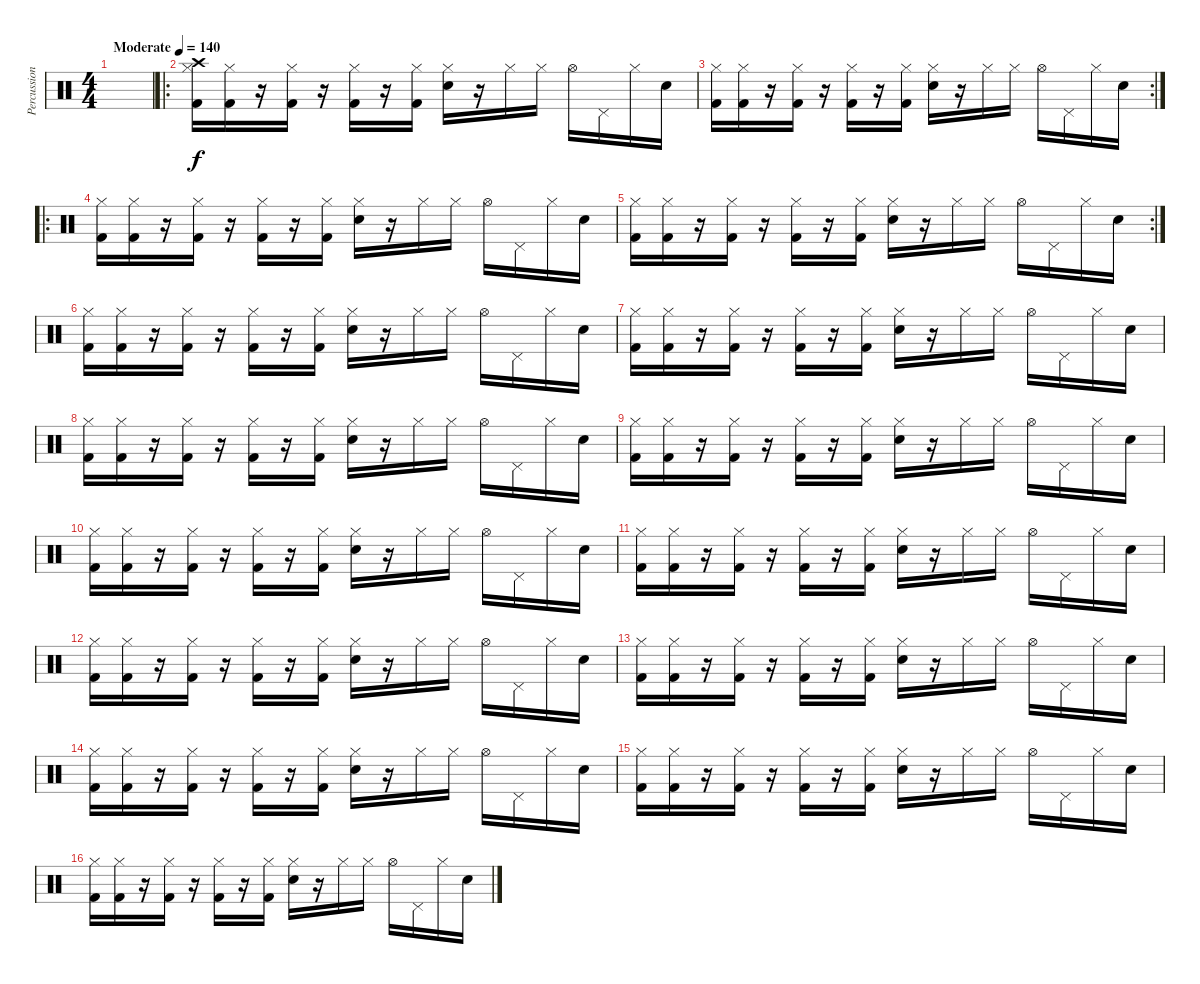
\track ("Percussion" "Percussion") {instrument percussion}
\staff {score}
\articulation defaults
\ts (4 4)
\tempo (140 "Moderate")
\clef neutral
\ks c
|
\ro
("Crash high (hit)" "Hi-Hat (closed)" "Kick (hit) 2").16 ("Hi-Hat (closed)" "Kick (hit) 2").16 r.16 ("Hi-Hat (closed)" "Kick (hit) 2").16 r.16 ("Hi-Hat (closed)" "Kick (hit) 2").16 r.16 ("Hi-Hat (closed)" "Kick (hit) 2").16 ("Hi-Hat (closed)" "Electric Snare (hit)").16 r.16 "Hi-Hat (closed)".16 "Hi-Hat (closed)".16 "Hi-Hat (open)".16 "Pedal Hi-Hat (hit)".16 "Hi-Hat (closed)".16 "Electric Snare (hit)".16 |
\rc 2
("Hi-Hat (closed)" "Kick (hit) 2").16 ("Hi-Hat (closed)" "Kick (hit) 2").16 r.16 ("Hi-Hat (closed)" "Kick (hit) 2").16 r.16 ("Hi-Hat (closed)" "Kick (hit) 2").16 r.16 ("Hi-Hat (closed)" "Kick (hit) 2").16 ("Hi-Hat (closed)" "Electric Snare (hit)").16 r.16 "Hi-Hat (closed)".16 "Hi-Hat (closed)".16 "Hi-Hat (open)".16 "Pedal Hi-Hat (hit)".16 "Hi-Hat (closed)".16 "Electric Snare (hit)".16 |
\ro
("Hi-Hat (closed)" "Kick (hit) 2").16 ("Hi-Hat (closed)" "Kick (hit) 2").16 r.16 ("Hi-Hat (closed)" "Kick (hit) 2").16 r.16 ("Hi-Hat (closed)" "Kick (hit) 2").16 r.16 ("Hi-Hat (closed)" "Kick (hit) 2").16 ("Hi-Hat (closed)" "Electric Snare (hit)").16 r.16 "Hi-Hat (closed)".16 "Hi-Hat (closed)".16 "Hi-Hat (open)".16 "Pedal Hi-Hat (hit)".16 "Hi-Hat (closed)".16 "Electric Snare (hit)".16 |
\rc 2
("Hi-Hat (closed)" "Kick (hit) 2").16 ("Hi-Hat (closed)" "Kick (hit) 2").16 r.16 ("Hi-Hat (closed)" "Kick (hit) 2").16 r.16 ("Hi-Hat (closed)" "Kick (hit) 2").16 r.16 ("Hi-Hat (closed)" "Kick (hit) 2").16 ("Hi-Hat (closed)" "Electric Snare (hit)").16 r.16 "Hi-Hat (closed)".16 "Hi-Hat (closed)".16 "Hi-Hat (open)".16 "Pedal Hi-Hat (hit)".16 "Hi-Hat (closed)".16 "Electric Snare (hit)".16 |
("Hi-Hat (closed)" "Kick (hit) 2").16 ("Hi-Hat (closed)" "Kick (hit) 2").16 r.16 ("Hi-Hat (closed)" "Kick (hit) 2").16 r.16 ("Hi-Hat (closed)" "Kick (hit) 2").16 r.16 ("Hi-Hat (closed)" "Kick (hit) 2").16 ("Hi-Hat (closed)" "Electric Snare (hit)").16 r.16 "Hi-Hat (closed)".16 "Hi-Hat (closed)".16 "Hi-Hat (open)".16 "Pedal Hi-Hat (hit)".16 "Hi-Hat (closed)".16 "Electric Snare (hit)".16 |
("Hi-Hat (closed)" "Kick (hit) 2").16 ("Hi-Hat (closed)" "Kick (hit) 2").16 r.16 ("Hi-Hat (closed)" "Kick (hit) 2").16 r.16 ("Hi-Hat (closed)" "Kick (hit) 2").16 r.16 ("Hi-Hat (closed)" "Kick (hit) 2").16 ("Hi-Hat (closed)" "Electric Snare (hit)").16 r.16 "Hi-Hat (closed)".16 "Hi-Hat (closed)".16 "Hi-Hat (open)".16 "Pedal Hi-Hat (hit)".16 "Hi-Hat (closed)".16 "Electric Snare (hit)".16 |
("Hi-Hat (closed)" "Kick (hit) 2").16 ("Hi-Hat (closed)" "Kick (hit) 2").16 r.16 ("Hi-Hat (closed)" "Kick (hit) 2").16 r.16 ("Hi-Hat (closed)" "Kick (hit) 2").16 r.16 ("Hi-Hat (closed)" "Kick (hit) 2").16 ("Hi-Hat (closed)" "Electric Snare (hit)").16 r.16 "Hi-Hat (closed)".16 "Hi-Hat (closed)".16 "Hi-Hat (open)".16 "Pedal Hi-Hat (hit)".16 "Hi-Hat (closed)".16 "Electric Snare (hit)".16 |
("Hi-Hat (closed)" "Kick (hit) 2").16 ("Hi-Hat (closed)" "Kick (hit) 2").16 r.16 ("Hi-Hat (closed)" "Kick (hit) 2").16 r.16 ("Hi-Hat (closed)" "Kick (hit) 2").16 r.16 ("Hi-Hat (closed)" "Kick (hit) 2").16 ("Hi-Hat (closed)" "Electric Snare (hit)").16 r.16 "Hi-Hat (closed)".16 "Hi-Hat (closed)".16 "Hi-Hat (open)".16 "Pedal Hi-Hat (hit)".16 "Hi-Hat (closed)".16 "Electric Snare (hit)".16 |
("Hi-Hat (closed)" "Kick (hit) 2").16 ("Hi-Hat (closed)" "Kick (hit) 2").16 r.16 ("Hi-Hat (closed)" "Kick (hit) 2").16 r.16 ("Hi-Hat (closed)" "Kick (hit) 2").16 r.16 ("Hi-Hat (closed)" "Kick (hit) 2").16 ("Hi-Hat (closed)" "Electric Snare (hit)").16 r.16 "Hi-Hat (closed)".16 "Hi-Hat (closed)".16 "Hi-Hat (open)".16 "Pedal Hi-Hat (hit)".16 "Hi-Hat (closed)".16 "Electric Snare (hit)".16 |
("Hi-Hat (closed)" "Kick (hit) 2").16 ("Hi-Hat (closed)" "Kick (hit) 2").16 r.16 ("Hi-Hat (closed)" "Kick (hit) 2").16 r.16 ("Hi-Hat (closed)" "Kick (hit) 2").16 r.16 ("Hi-Hat (closed)" "Kick (hit) 2").16 ("Hi-Hat (closed)" "Electric Snare (hit)").16 r.16 "Hi-Hat (closed)".16 "Hi-Hat (closed)".16 "Hi-Hat (open)".16 "Pedal Hi-Hat (hit)".16 "Hi-Hat (closed)".16 "Electric Snare (hit)".16 |
("Hi-Hat (closed)" "Kick (hit) 2").16 ("Hi-Hat (closed)" "Kick (hit) 2").16 r.16 ("Hi-Hat (closed)" "Kick (hit) 2").16 r.16 ("Hi-Hat (closed)" "Kick (hit) 2").16 r.16 ("Hi-Hat (closed)" "Kick (hit) 2").16 ("Hi-Hat (closed)" "Electric Snare (hit)").16 r.16 "Hi-Hat (closed)".16 "Hi-Hat (closed)".16 "Hi-Hat (open)".16 "Pedal Hi-Hat (hit)".16 "Hi-Hat (closed)".16 "Electric Snare (hit)".16 |
("Hi-Hat (closed)" "Kick (hit) 2").16 ("Hi-Hat (closed)" "Kick (hit) 2").16 r.16 ("Hi-Hat (closed)" "Kick (hit) 2").16 r.16 ("Hi-Hat (closed)" "Kick (hit) 2").16 r.16 ("Hi-Hat (closed)" "Kick (hit) 2").16 ("Hi-Hat (closed)" "Electric Snare (hit)").16 r.16 "Hi-Hat (closed)".16 "Hi-Hat (closed)".16 "Hi-Hat (open)".16 "Pedal Hi-Hat (hit)".16 "Hi-Hat (closed)".16 "Electric Snare (hit)".16 |
("Hi-Hat (closed)" "Kick (hit) 2").16 ("Hi-Hat (closed)" "Kick (hit) 2").16 r.16 ("Hi-Hat (closed)" "Kick (hit) 2").16 r.16 ("Hi-Hat (closed)" "Kick (hit) 2").16 r.16 ("Hi-Hat (closed)" "Kick (hit) 2").16 ("Hi-Hat (closed)" "Electric Snare (hit)").16 r.16 "Hi-Hat (closed)".16 "Hi-Hat (closed)".16 "Hi-Hat (open)".16 "Pedal Hi-Hat (hit)".16 "Hi-Hat (closed)".16 "Electric Snare (hit)".16 |
("Hi-Hat (closed)" "Kick (hit) 2").16 ("Hi-Hat (closed)" "Kick (hit) 2").16 r.16 ("Hi-Hat (closed)" "Kick (hit) 2").16 r.16 ("Hi-Hat (closed)" "Kick (hit) 2").16 r.16 ("Hi-Hat (closed)" "Kick (hit) 2").16 ("Hi-Hat (closed)" "Electric Snare (hit)").16 r.16 "Hi-Hat (closed)".16 "Hi-Hat (closed)".16 "Hi-Hat (open)".16 "Pedal Hi-Hat (hit)".16 "Hi-Hat (closed)".16 "Electric Snare (hit)".16 |
("Hi-Hat (closed)" "Kick (hit) 2").16 ("Hi-Hat (closed)" "Kick (hit) 2").16 r.16 ("Hi-Hat (closed)" "Kick (hit) 2").16 r.16 ("Hi-Hat (closed)" "Kick (hit) 2").16 r.16 ("Hi-Hat (closed)" "Kick (hit) 2").16 ("Hi-Hat (closed)" "Electric Snare (hit)").16 r.16 "Hi-Hat (closed)".16 "Hi-Hat (closed)".16 "Hi-Hat (open)".16 "Pedal Hi-Hat (hit)".16 "Hi-Hat (closed)".16 "Electric Snare (hit)".16
